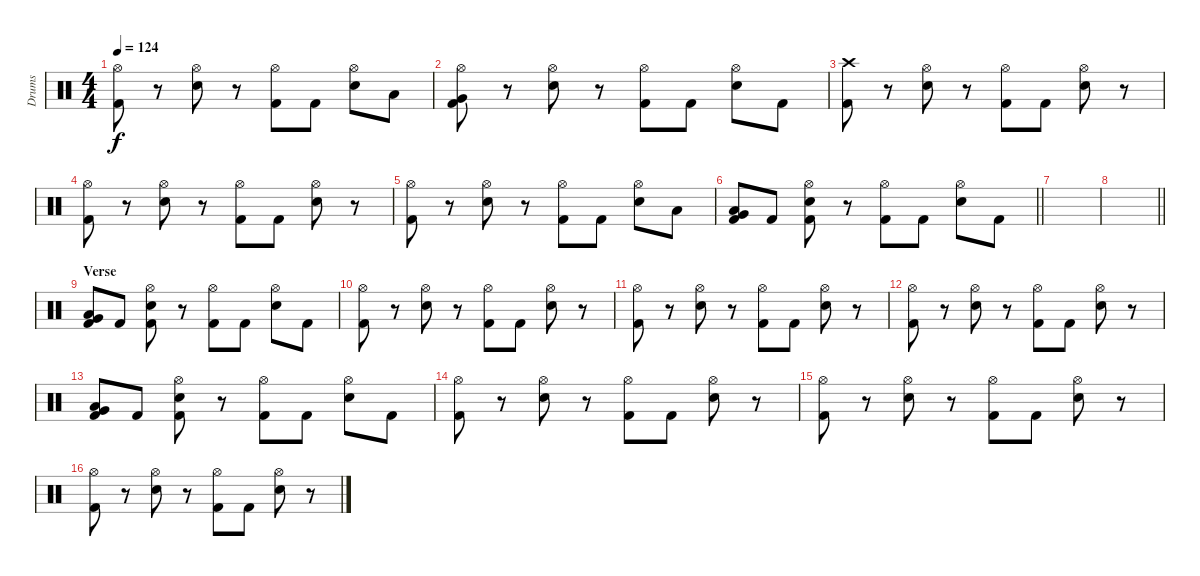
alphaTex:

\track ("Drums" "Drums") {instrument percussion}
\staff {score}
\articulation defaults
\ts (4 4)
\tempo 124
\clef neutral
\ks c
("Hi-Hat (open)" "Kick (hit) 2").8{dy f} r.8 ("Hi-Hat (open)" "Electric Snare (hit)").8 r.8 ("Hi-Hat (open)" "Kick (hit) 2").8 "Kick (hit) 2".8 ("Hi-Hat (open)" "Electric Snare (hit)").8 "Low Tom (hit)".8 |
("Hi-Hat (open)" "Very Low Tom (hit)" "Kick (hit) 2").8 r.8 ("Hi-Hat (open)" "Electric Snare (hit)").8 r.8 ("Hi-Hat (open)" "Kick (hit) 2").8 "Kick (hit) 2".8 ("Hi-Hat (open)" "Electric Snare (hit)").8 "Kick (hit) 2".8 |
("Crash high (hit)" "Kick (hit) 2").8 r.8 ("Hi-Hat (open)" "Electric Snare (hit)").8 r.8 ("Hi-Hat (open)" "Kick (hit) 2").8 "Kick (hit) 2".8 ("Hi-Hat (open)" "Electric Snare (hit)").8 r.8 |
("Hi-Hat (open)" "Kick (hit) 2").8 r.8 ("Hi-Hat (open)" "Electric Snare (hit)").8 r.8 ("Hi-Hat (open)" "Kick (hit) 2").8 "Kick (hit) 2".8 ("Hi-Hat (open)" "Electric Snare (hit)").8 r.8 |
("Hi-Hat (open)" "Kick (hit) 2").8 r.8 ("Hi-Hat (open)" "Electric Snare (hit)").8 r.8 ("Hi-Hat (open)" "Kick (hit) 2").8 "Kick (hit) 2".8 ("Hi-Hat (open)" "Electric Snare (hit)").8 "Low Tom (hit)".8 |
\barLineRight lightlight
("Very Low Tom (hit)" "Low Tom (hit)" "Kick (hit) 2").8 "Kick (hit) 2".8 ("Hi-Hat (open)" "Electric Snare (hit)" "Kick (hit) 2").8 r.8 ("Hi-Hat (open)" "Kick (hit) 2").8 "Kick (hit) 2".8 ("Hi-Hat (open)" "Electric Snare (hit)").8 "Kick (hit) 2".8 |
|
\barLineRight lightlight
|
\section ("" "Verse")
("Very Low Tom (hit)" "Low Tom (hit)" "Kick (hit) 2").8 "Kick (hit) 2".8 ("Hi-Hat (open)" "Electric Snare (hit)" "Kick (hit) 2").8 r.8 ("Hi-Hat (open)" "Kick (hit) 2").8 "Kick (hit) 2".8 ("Hi-Hat (open)" "Electric Snare (hit)").8 "Kick (hit) 2".8 |
("Hi-Hat (open)" "Kick (hit) 2").8 r.8 ("Hi-Hat (open)" "Electric Snare (hit)").8 r.8 ("Hi-Hat (open)" "Kick (hit) 2").8 "Kick (hit) 2".8 ("Hi-Hat (open)" "Electric Snare (hit)").8 r.8 |
("Hi-Hat (open)" "Kick (hit) 2").8 r.8 ("Hi-Hat (open)" "Electric Snare (hit)").8 r.8 ("Hi-Hat (open)" "Kick (hit) 2").8 "Kick (hit) 2".8 ("Hi-Hat (open)" "Electric Snare (hit)").8 r.8 |
("Hi-Hat (open)" "Kick (hit) 2").8 r.8 ("Hi-Hat (open)" "Electric Snare (hit)").8 r.8 ("Hi-Hat (open)" "Kick (hit) 2").8 "Kick (hit) 2".8 ("Hi-Hat (open)" "Electric Snare (hit)").8 r.8 |
("Very Low Tom (hit)" "Low Tom (hit)" "Kick (hit) 2").8 "Kick (hit) 2".8 ("Hi-Hat (open)" "Electric Snare (hit)" "Kick (hit) 2").8 r.8 ("Hi-Hat (open)" "Kick (hit) 2").8 "Kick (hit) 2".8 ("Hi-Hat (open)" "Electric Snare (hit)").8 "Kick (hit) 2".8 |
("Hi-Hat (open)" "Kick (hit) 2").8 r.8 ("Hi-Hat (open)" "Electric Snare (hit)").8 r.8 ("Hi-Hat (open)" "Kick (hit) 2").8 "Kick (hit) 2".8 ("Hi-Hat (open)" "Electric Snare (hit)").8 r.8 |
("Hi-Hat (open)" "Kick (hit) 2").8 r.8 ("Hi-Hat (open)" "Electric Snare (hit)").8 r.8 ("Hi-Hat (open)" "Kick (hit) 2").8 "Kick (hit) 2".8 ("Hi-Hat (open)" "Electric Snare (hit)").8 r.8 |
("Hi-Hat (open)" "Kick (hit) 2").8 r.8 ("Hi-Hat (open)" "Electric Snare (hit)").8 r.8 ("Hi-Hat (open)" "Kick (hit) 2").8 "Kick (hit) 2".8 ("Hi-Hat (open)" "Electric Snare (hit)").8 r.8
